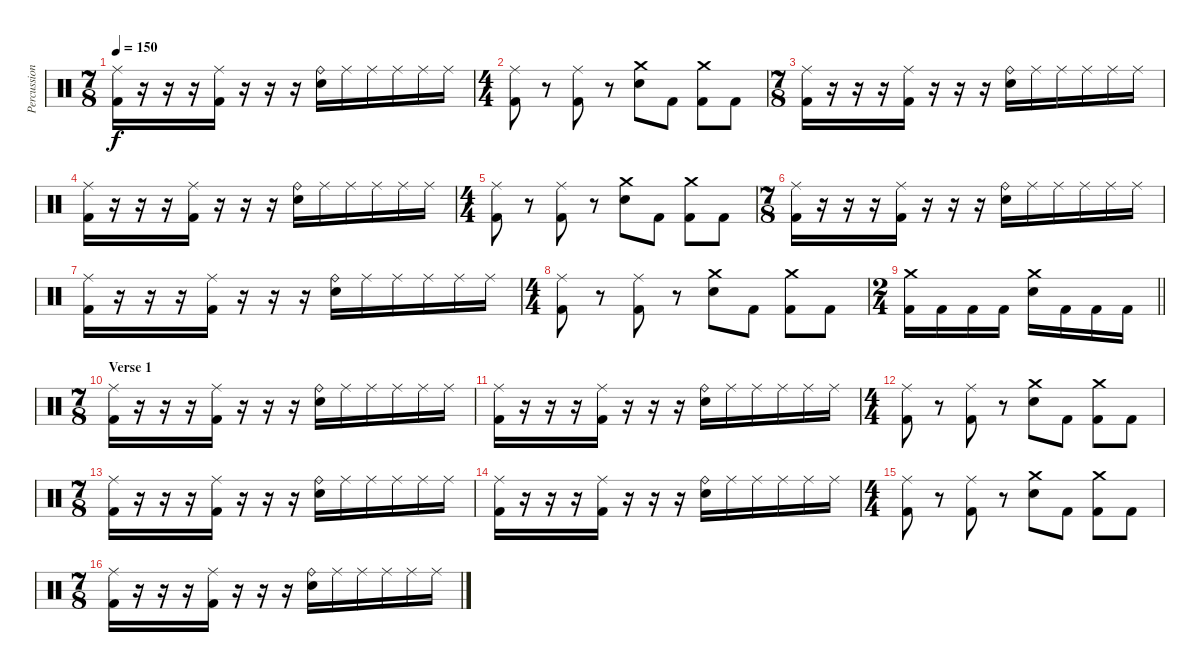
\track ("Percussion" "Percussion") {instrument percussion}
\staff {score}
\articulation defaults
\ts (7 8)
\tempo 150
\clef neutral
\ks c
("Ride (middle)" "Kick (hit) 2").16{dy f} r.16 r.16 r.16 ("Ride (middle)" "Kick (hit) 2").16 r.16 r.16 r.16 ("Ride (bell)" "Electric Snare (hit)").16 "Ride (middle)".16 "Ride (middle)".16 "Ride (middle)".16 "Ride (middle)".16 "Ride (middle)".16 |
\ts (4 4)
("Ride (middle)" "Kick (hit) 2").8 r.8 ("Ride (middle)" "Kick (hit) 2").8 r.8 ("Crash medium (hit)" "Electric Snare (hit)").8 "Kick (hit) 2".8 ("Crash medium (hit)" "Kick (hit) 2").8 "Kick (hit) 2".8 |
\ts (7 8)
("Ride (middle)" "Kick (hit) 2").16 r.16 r.16 r.16 ("Ride (middle)" "Kick (hit) 2").16 r.16 r.16 r.16 ("Ride (bell)" "Electric Snare (hit)").16 "Ride (middle)".16 "Ride (middle)".16 "Ride (middle)".16 "Ride (middle)".16 "Ride (middle)".16 |
("Ride (middle)" "Kick (hit) 2").16 r.16 r.16 r.16 ("Ride (middle)" "Kick (hit) 2").16 r.16 r.16 r.16 ("Ride (bell)" "Electric Snare (hit)").16 "Ride (middle)".16 "Ride (middle)".16 "Ride (middle)".16 "Ride (middle)".16 "Ride (middle)".16 |
\ts (4 4)
("Ride (middle)" "Kick (hit) 2").8 r.8 ("Ride (middle)" "Kick (hit) 2").8 r.8 ("Crash medium (hit)" "Electric Snare (hit)").8 "Kick (hit) 2".8 ("Crash medium (hit)" "Kick (hit) 2").8 "Kick (hit) 2".8 |
\ts (7 8)
("Ride (middle)" "Kick (hit) 2").16 r.16 r.16 r.16 ("Ride (middle)" "Kick (hit) 2").16 r.16 r.16 r.16 ("Ride (bell)" "Electric Snare (hit)").16 "Ride (middle)".16 "Ride (middle)".16 "Ride (middle)".16 "Ride (middle)".16 "Ride (middle)".16 |
("Ride (middle)" "Kick (hit) 2").16 r.16 r.16 r.16 ("Ride (middle)" "Kick (hit) 2").16 r.16 r.16 r.16 ("Ride (bell)" "Electric Snare (hit)").16 "Ride (middle)".16 "Ride (middle)".16 "Ride (middle)".16 "Ride (middle)".16 "Ride (middle)".16 |
\ts (4 4)
("Ride (middle)" "Kick (hit) 2").8 r.8 ("Ride (middle)" "Kick (hit) 2").8 r.8 ("Crash medium (hit)" "Electric Snare (hit)").8 "Kick (hit) 2".8 ("Crash medium (hit)" "Kick (hit) 2").8 "Kick (hit) 2".8 |
\ts (2 4)
\barLineRight lightlight
("Crash medium (hit)" "Kick (hit) 2").16 "Kick (hit) 2".16 "Kick (hit) 2".16 "Kick (hit) 2".16 ("Crash medium (hit)" "Electric Snare (hit)").16 "Kick (hit) 2".16 "Kick (hit) 2".16 "Kick (hit) 2".16 |
\ts (7 8)
\section ("" "Verse 1")
("Ride (middle)" "Kick (hit) 2").16 r.16 r.16 r.16 ("Ride (middle)" "Kick (hit) 2").16 r.16 r.16 r.16 ("Ride (bell)" "Electric Snare (hit)").16 "Ride (middle)".16 "Ride (middle)".16 "Ride (middle)".16 "Ride (middle)".16 "Ride (middle)".16 |
("Ride (middle)" "Kick (hit) 2").16 r.16 r.16 r.16 ("Ride (middle)" "Kick (hit) 2").16 r.16 r.16 r.16 ("Ride (bell)" "Electric Snare (hit)").16 "Ride (middle)".16 "Ride (middle)".16 "Ride (middle)".16 "Ride (middle)".16 "Ride (middle)".16 |
\ts (4 4)
("Ride (middle)" "Kick (hit) 2").8 r.8 ("Ride (middle)" "Kick (hit) 2").8 r.8 ("Crash medium (hit)" "Electric Snare (hit)").8 "Kick (hit) 2".8 ("Crash medium (hit)" "Kick (hit) 2").8 "Kick (hit) 2".8 |
\ts (7 8)
("Ride (middle)" "Kick (hit) 2").16 r.16 r.16 r.16 ("Ride (middle)" "Kick (hit) 2").16 r.16 r.16 r.16 ("Ride (bell)" "Electric Snare (hit)").16 "Ride (middle)".16 "Ride (middle)".16 "Ride (middle)".16 "Ride (middle)".16 "Ride (middle)".16 |
("Ride (middle)" "Kick (hit) 2").16 r.16 r.16 r.16 ("Ride (middle)" "Kick (hit) 2").16 r.16 r.16 r.16 ("Ride (bell)" "Electric Snare (hit)").16 "Ride (middle)".16 "Ride (middle)".16 "Ride (middle)".16 "Ride (middle)".16 "Ride (middle)".16 |
\ts (4 4)
("Ride (middle)" "Kick (hit) 2").8 r.8 ("Ride (middle)" "Kick (hit) 2").8 r.8 ("Crash medium (hit)" "Electric Snare (hit)").8 "Kick (hit) 2".8 ("Crash medium (hit)" "Kick (hit) 2").8 "Kick (hit) 2".8 |
\ts (7 8)
("Ride (middle)" "Kick (hit) 2").16 r.16 r.16 r.16 ("Ride (middle)" "Kick (hit) 2").16 r.16 r.16 r.16 ("Ride (bell)" "Electric Snare (hit)").16 "Ride (middle)".16 "Ride (middle)".16 "Ride (middle)".16 "Ride (middle)".16 "Ride (middle)".16
